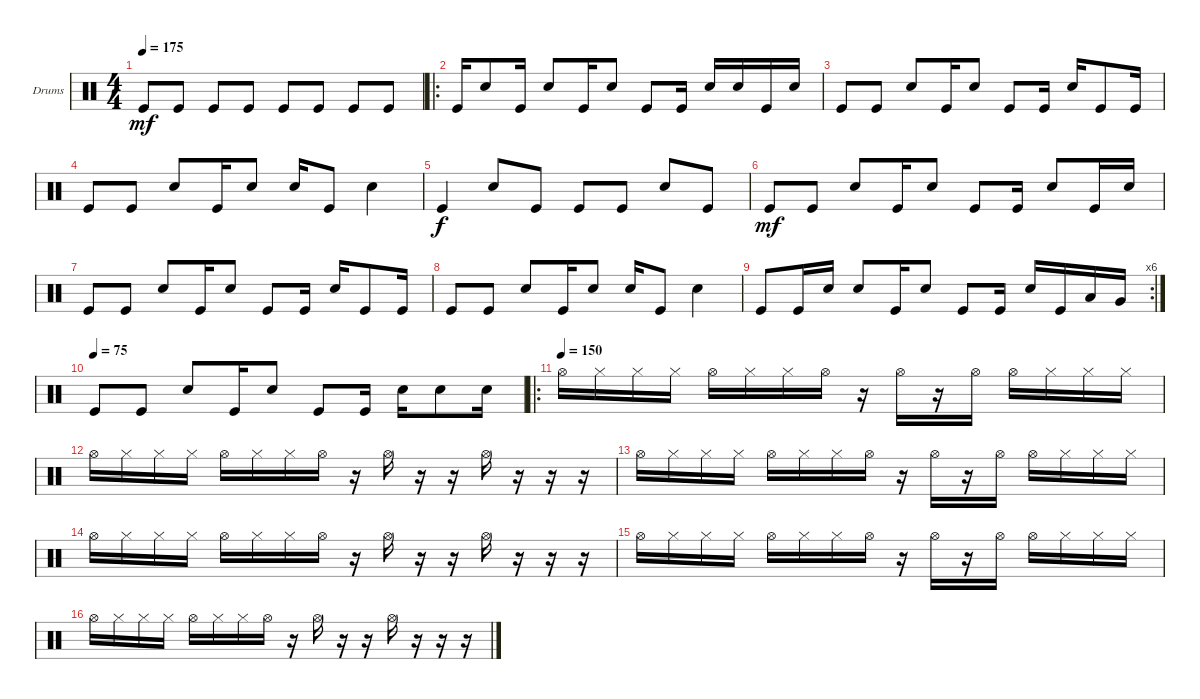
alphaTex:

\defaultSystemsLayout 4
\bracketExtendMode groupsimilarinstruments
\firstSystemTrackNameOrientation horizontal
\otherSystemsTrackNameOrientation horizontal
\track ("Drumkit" "Drums") {instrument percussion}
\staff {score}
\articulation defaults
\ts (4 4)
\tempo 175
\clef neutral
\ks c "Kick (hit)".8{dy mf} "Kick (hit)".8 "Kick (hit)".8 "Kick (hit)".8 "Kick (hit)".8 "Kick (hit)".8 "Kick (hit)".8 "Kick (hit)".8
|
\ro
\scale
0.365591 "Kick (hit)".16 "Snare (hit) 2".8 "Kick (hit)".16 "Snare (hit) 2".8 "Kick (hit)".16 "Snare (hit) 2".8 "Kick (hit)".8 "Kick (hit)".16 "Snare (hit) 2".16 "Snare (hit) 2".16 "Kick (hit)".16 "Snare (hit) 2".16 |
\scale
0.301075 "Kick (hit)".8 "Kick (hit)".8 "Snare (hit) 2".8 "Kick (hit)".16 "Snare (hit) 2".8 "Kick (hit)".8 "Kick (hit)".16 "Snare (hit) 2".16 "Kick (hit)".8 "Kick (hit)".16 |
\scale
0.333333 "Kick (hit)".8 "Kick (hit)".8 "Snare (hit) 2".8 "Kick (hit)".16 "Snare (hit) 2".8 "Snare (hit) 2".16 "Kick (hit)".8 "Snare (hit) 2".4 |
\scale
0.333333 "Kick (hit)".4{dy f} "Snare (hit) 2".8 "Kick (hit)".8 "Kick (hit)".8 "Kick (hit)".8 "Snare (hit) 2".8 "Kick (hit)".8 |
\scale
0.333333 "Kick (hit)".8{dy mf} "Kick (hit)".8 "Snare (hit) 2".8 "Kick (hit)".16 "Snare (hit) 2".8 "Kick (hit)".8 "Kick (hit)".16 "Snare (hit) 2".8 "Kick (hit)".16 "Snare (hit) 2".16 |
\scale
0.321839 "Kick (hit)".8 "Kick (hit)".8 "Snare (hit) 2".8 "Kick (hit)".16 "Snare (hit) 2".8 "Kick (hit)".8 "Kick (hit)".16 "Snare (hit) 2".16 "Kick (hit)".8 "Kick (hit)".16 |
\scale
0.321839 "Kick (hit)".8 "Kick (hit)".8 "Snare (hit) 2".8 "Kick (hit)".16 "Snare (hit) 2".8 "Snare (hit) 2".16 "Kick (hit)".8 "Snare (hit) 2".4 |
\rc 6
\scale
0.356322 "Kick (hit)".8 "Kick (hit)".16 "Snare (hit) 2".16 "Snare (hit) 2".8 "Kick (hit)".16 "Snare (hit) 2".8 "Kick (hit)".8 "Kick (hit)".16 "Snare (hit) 2".16 "Kick (hit)".16 "Low Tom (hit)".16 "Very Low Tom (hit)".16 |
\tempo 75
\scale
0.311111 "Kick (hit)".8 "Kick (hit)".8 "Snare (hit) 2".8 "Kick (hit)".16 "Snare (hit) 2".8 "Kick (hit)".8 "Kick (hit)".16 "Snare (hit) 2".16 "Snare (hit) 2".8 "Snare (hit) 2".16 |
\ro
\tempo 150
\scale
0.377778 "Hi-Hat (open)".16 "Hi-Hat (closed)".16 "Hi-Hat (closed)".16 "Hi-Hat (closed)".16 "Hi-Hat (open)".16 "Hi-Hat (closed)".16 "Hi-Hat (closed)".16 "Hi-Hat (open)".16 r.16 "Hi-Hat (open)".16 r.16 "Hi-Hat (open)".16 "Hi-Hat (open)".16 "Hi-Hat (closed)".16 "Hi-Hat (closed)".16 "Hi-Hat (closed)".16 |
\scale
0.311111 "Hi-Hat (open)".16 "Hi-Hat (closed)".16 "Hi-Hat (closed)".16 "Hi-Hat (closed)".16 "Hi-Hat (open)".16 "Hi-Hat (closed)".16 "Hi-Hat (closed)".16 "Hi-Hat (open)".16 r.16 "Hi-Hat (open)".16 r.16 r.16 "Hi-Hat (open)".16 r.16 r.16 r.16 |
\scale
0.333333 "Hi-Hat (open)".16 "Hi-Hat (closed)".16 "Hi-Hat (closed)".16 "Hi-Hat (closed)".16 "Hi-Hat (open)".16 "Hi-Hat (closed)".16 "Hi-Hat (closed)".16 "Hi-Hat (open)".16 r.16 "Hi-Hat (open)".16 r.16 "Hi-Hat (open)".16 "Hi-Hat (open)".16 "Hi-Hat (closed)".16 "Hi-Hat (closed)".16 "Hi-Hat (closed)".16 |
\scale
0.333333 "Hi-Hat (open)".16 "Hi-Hat (closed)".16 "Hi-Hat (closed)".16 "Hi-Hat (closed)".16 "Hi-Hat (open)".16 "Hi-Hat (closed)".16 "Hi-Hat (closed)".16 "Hi-Hat (open)".16 r.16 "Hi-Hat (open)".16 r.16 r.16 "Hi-Hat (open)".16 r.16 r.16 r.16 |
\scale
0.333333 "Hi-Hat (open)".16 "Hi-Hat (closed)".16 "Hi-Hat (closed)".16 "Hi-Hat (closed)".16 "Hi-Hat (open)".16 "Hi-Hat (closed)".16 "Hi-Hat (closed)".16 "Hi-Hat (open)".16 r.16 "Hi-Hat (open)".16 r.16 "Hi-Hat (open)".16 "Hi-Hat (open)".16 "Hi-Hat (closed)".16 "Hi-Hat (closed)".16 "Hi-Hat (closed)".16 |
\scale
0.321839 "Hi-Hat (open)".16 "Hi-Hat (closed)".16 "Hi-Hat (closed)".16 "Hi-Hat (closed)".16 "Hi-Hat (open)".16 "Hi-Hat (closed)".16 "Hi-Hat (closed)".16 "Hi-Hat (open)".16 r.16 "Hi-Hat (open)".16 r.16 r.16 "Hi-Hat (open)".16 r.16 r.16 r.16
